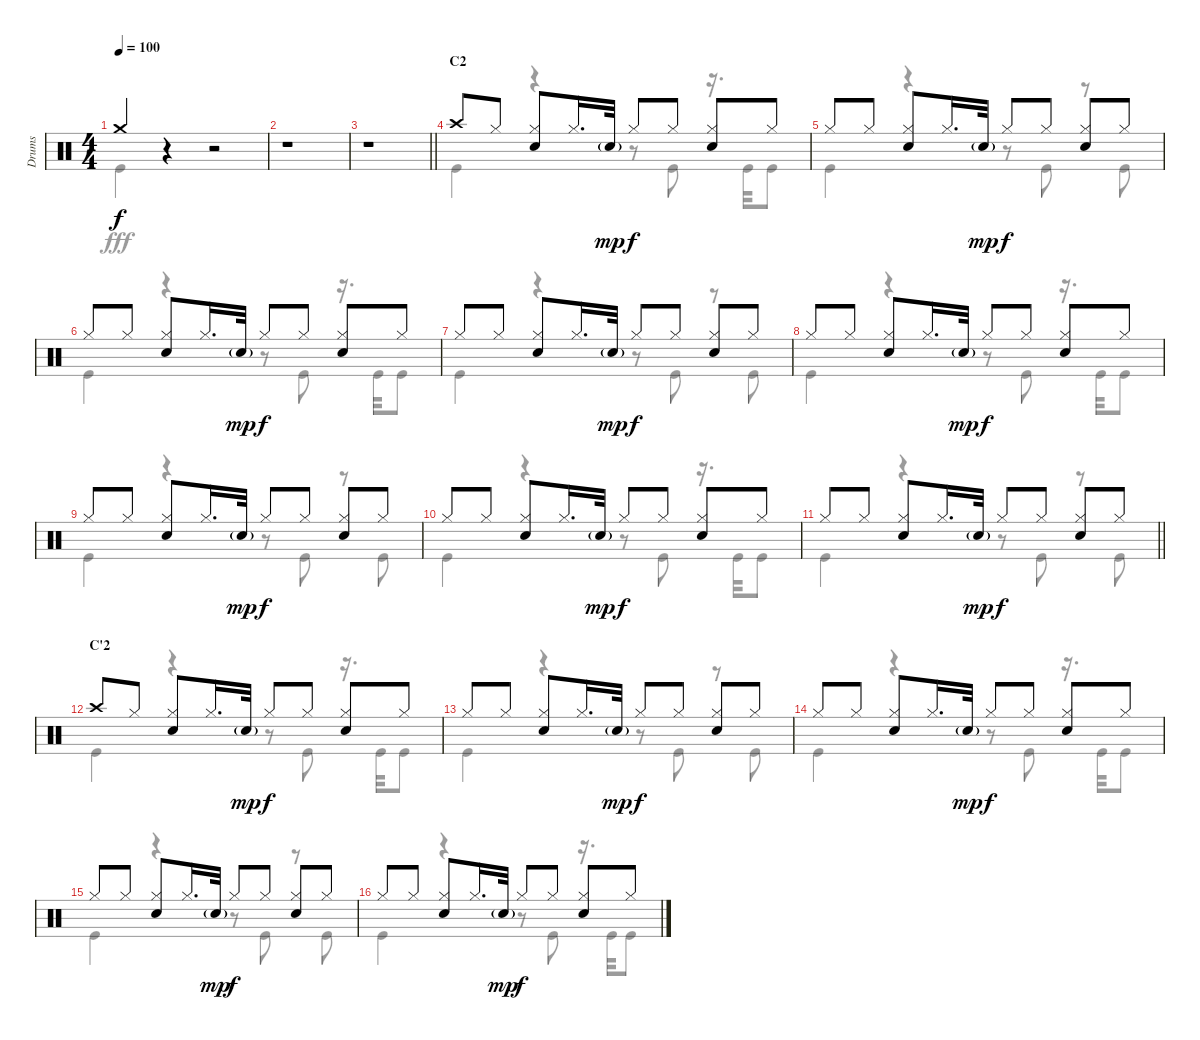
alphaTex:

\track ("Drums" "Drums") {instrument percussion}
\staff {score}
\articulation defaults
\voice
\ts (4 4)
\tempo 100
\clef neutral
\ks c "Crash medium (hit)".4{dy f}
r.4 r.2 |
r.1 |
\barLineRight lightlight
r.1 |
\section ("" "C2")
"Crash high (hit)".8 "Hi-Hat (closed)".8 ("Hi-Hat (closed)" "Snare (hit) 2").8 "Hi-Hat (closed)".16{d} "Snare (hit) 2"{g}.32{dy mp} "Hi-Hat (closed)".8{dy f} "Hi-Hat (closed)".8 ("Hi-Hat (closed)" "Snare (hit) 2").8 "Hi-Hat (closed)".8 |
"Hi-Hat (closed)".8 "Hi-Hat (closed)".8 ("Hi-Hat (closed)" "Snare (hit) 2").8 "Hi-Hat (closed)".16{d} "Snare (hit) 2"{g}.32{dy mp} "Hi-Hat (closed)".8{dy f} "Hi-Hat (closed)".8 ("Hi-Hat (closed)" "Snare (hit) 2").8 "Hi-Hat (closed)".8 |
"Hi-Hat (closed)".8 "Hi-Hat (closed)".8 ("Hi-Hat (closed)" "Snare (hit) 2").8 "Hi-Hat (closed)".16{d} "Snare (hit) 2"{g}.32{dy mp} "Hi-Hat (closed)".8{dy f} "Hi-Hat (closed)".8 ("Hi-Hat (closed)" "Snare (hit) 2").8 "Hi-Hat (closed)".8 |
"Hi-Hat (closed)".8 "Hi-Hat (closed)".8 ("Hi-Hat (closed)" "Snare (hit) 2").8 "Hi-Hat (closed)".16{d} "Snare (hit) 2"{g}.32{dy mp} "Hi-Hat (closed)".8{dy f} "Hi-Hat (closed)".8 ("Hi-Hat (closed)" "Snare (hit) 2").8 "Hi-Hat (closed)".8 |
"Hi-Hat (closed)".8 "Hi-Hat (closed)".8 ("Hi-Hat (closed)" "Snare (hit) 2").8 "Hi-Hat (closed)".16{d} "Snare (hit) 2"{g}.32{dy mp} "Hi-Hat (closed)".8{dy f} "Hi-Hat (closed)".8 ("Hi-Hat (closed)" "Snare (hit) 2").8 "Hi-Hat (closed)".8 |
"Hi-Hat (closed)".8 "Hi-Hat (closed)".8 ("Hi-Hat (closed)" "Snare (hit) 2").8 "Hi-Hat (closed)".16{d} "Snare (hit) 2"{g}.32{dy mp} "Hi-Hat (closed)".8{dy f} "Hi-Hat (closed)".8 ("Hi-Hat (closed)" "Snare (hit) 2").8 "Hi-Hat (closed)".8 |
"Hi-Hat (closed)".8 "Hi-Hat (closed)".8 ("Hi-Hat (closed)" "Snare (hit) 2").8 "Hi-Hat (closed)".16{d} "Snare (hit) 2"{g}.32{dy mp} "Hi-Hat (closed)".8{dy f} "Hi-Hat (closed)".8 ("Hi-Hat (closed)" "Snare (hit) 2").8 "Hi-Hat (closed)".8 |
\barLineRight lightlight "Hi-Hat (closed)".8 "Hi-Hat (closed)".8
("Hi-Hat (closed)" "Snare (hit) 2").8 "Hi-Hat (closed)".16{d} "Snare (hit) 2"{g}.32{dy mp} "Hi-Hat (closed)".8{dy f} "Hi-Hat (closed)".8 ("Hi-Hat (closed)" "Snare (hit) 2").8 "Hi-Hat (closed)".8 |
\section ("" "C'2")
"Crash high (hit)".8 "Hi-Hat (closed)".8 ("Hi-Hat (closed)" "Snare (hit) 2").8 "Hi-Hat (closed)".16{d} "Snare (hit) 2"{g}.32{dy mp} "Hi-Hat (closed)".8{dy f} "Hi-Hat (closed)".8 ("Hi-Hat (closed)" "Snare (hit) 2").8 "Hi-Hat (closed)".8 |
"Hi-Hat (closed)".8 "Hi-Hat (closed)".8 ("Hi-Hat (closed)" "Snare (hit) 2").8 "Hi-Hat (closed)".16{d} "Snare (hit) 2"{g}.32{dy mp} "Hi-Hat (closed)".8{dy f} "Hi-Hat (closed)".8 ("Hi-Hat (closed)" "Snare (hit) 2").8 "Hi-Hat (closed)".8 |
"Hi-Hat (closed)".8 "Hi-Hat (closed)".8 ("Hi-Hat (closed)" "Snare (hit) 2").8 "Hi-Hat (closed)".16{d} "Snare (hit) 2"{g}.32{dy mp} "Hi-Hat (closed)".8{dy f} "Hi-Hat (closed)".8 ("Hi-Hat (closed)" "Snare (hit) 2").8 "Hi-Hat (closed)".8 |
"Hi-Hat (closed)".8 "Hi-Hat (closed)".8 ("Hi-Hat (closed)" "Snare (hit) 2").8 "Hi-Hat (closed)".16{d} "Snare (hit) 2"{g}.32{dy mp} "Hi-Hat (closed)".8{dy f} "Hi-Hat (closed)".8 ("Hi-Hat (closed)" "Snare (hit) 2").8 "Hi-Hat (closed)".8 |
"Hi-Hat (closed)".8 "Hi-Hat (closed)".8 ("Hi-Hat (closed)" "Snare (hit) 2").8 "Hi-Hat (closed)".16{d} "Snare (hit) 2"{g}.32{dy mp} "Hi-Hat (closed)".8{dy f} "Hi-Hat (closed)".8 ("Hi-Hat (closed)" "Snare (hit) 2").8 "Hi-Hat (closed)".8
\voice
\clef neutral
\ottava regular
\simile none
\ks c "Kick (hit)".4{dy fff}
r.4 r.2 |
r.1 |
\barLineRight lightlight
r.1 |
"Kick (hit)".4 r.4 r.8 "Kick (hit)".8 r.16{d} "Kick (hit)".32 "Kick (hit)".8 |
"Kick (hit)".4 r.4 r.8 "Kick (hit)".8 r.8 "Kick (hit)".8 |
"Kick (hit)".4 r.4 r.8 "Kick (hit)".8 r.16{d} "Kick (hit)".32 "Kick (hit)".8 |
"Kick (hit)".4 r.4 r.8 "Kick (hit)".8 r.8 "Kick (hit)".8 |
"Kick (hit)".4 r.4 r.8 "Kick (hit)".8 r.16{d} "Kick (hit)".32 "Kick (hit)".8 |
"Kick (hit)".4 r.4 r.8 "Kick (hit)".8 r.8 "Kick (hit)".8 |
"Kick (hit)".4 r.4 r.8 "Kick (hit)".8 r.16{d} "Kick (hit)".32 "Kick (hit)".8 |
\barLineRight lightlight "Kick (hit)".4
r.4 r.8 "Kick (hit)".8 r.8 "Kick (hit)".8 |
"Kick (hit)".4 r.4 r.8 "Kick (hit)".8 r.16{d} "Kick (hit)".32 "Kick (hit)".8 |
"Kick (hit)".4 r.4 r.8 "Kick (hit)".8 r.8 "Kick (hit)".8 |
"Kick (hit)".4 r.4 r.8 "Kick (hit)".8 r.16{d} "Kick (hit)".32 "Kick (hit)".8 |
"Kick (hit)".4 r.4 r.8 "Kick (hit)".8 r.8 "Kick (hit)".8 |
"Kick (hit)".4 r.4 r.8 "Kick (hit)".8 r.16{d} "Kick (hit)".32 "Kick (hit)".8
